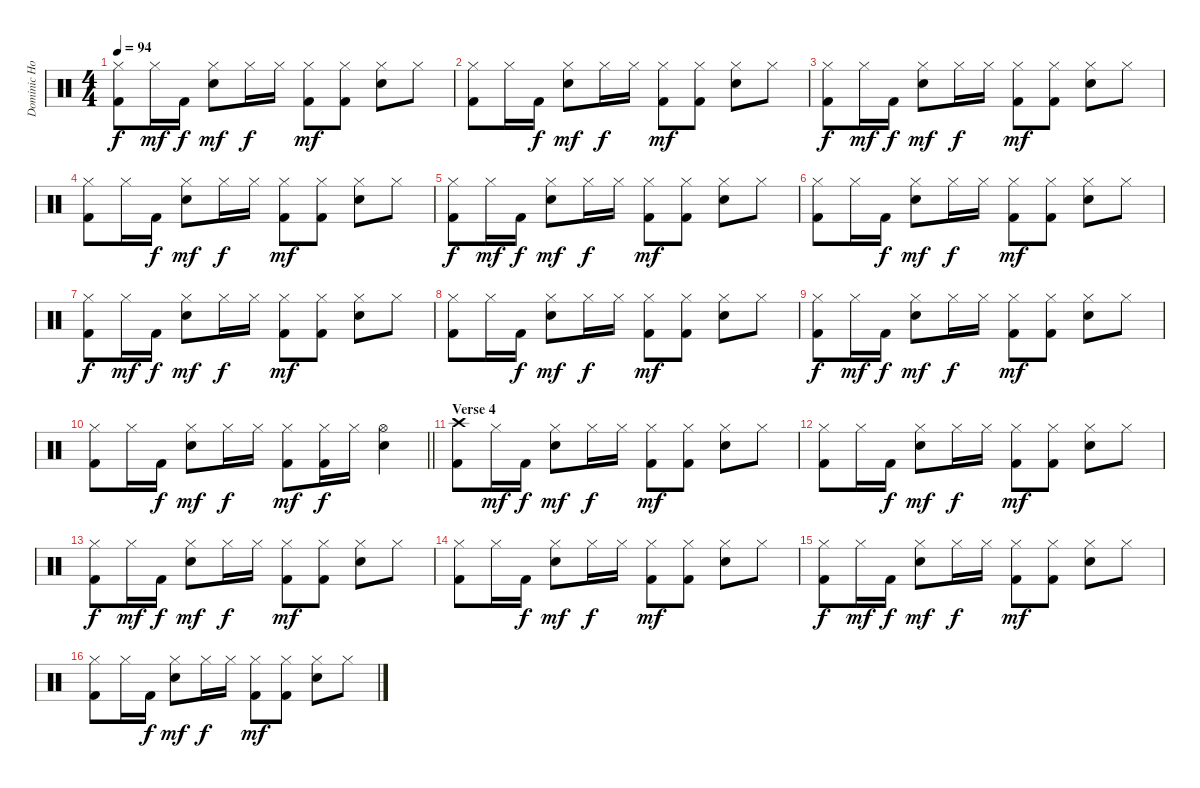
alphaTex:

\track ("Dominic Howard - Drums" "Dominic Ho") {instrument percussion}
\staff {score}
\articulation defaults
\ts (4 4)
\tempo 94
\clef neutral
\ks c
("Kick (hit) 2" "Hi-Hat (closed)").8{dy f} "Hi-Hat (closed)".16{dy mf} "Kick (hit) 2".16{dy f} ("Hi-Hat (closed)" "Electric Snare (hit)").8{dy mf} "Hi-Hat (closed)".16{dy f} "Hi-Hat (closed)".16 ("Hi-Hat (closed)" "Kick (hit) 2").8{dy mf} ("Hi-Hat (closed)" "Kick (hit) 2").8 ("Hi-Hat (closed)" "Electric Snare (hit)").8 "Hi-Hat (closed)".8 |
("Kick (hit) 2" "Hi-Hat (closed)").8 "Hi-Hat (closed)".16 "Kick (hit) 2".16{dy f} ("Hi-Hat (closed)" "Electric Snare (hit)").8{dy mf} "Hi-Hat (closed)".16{dy f} "Hi-Hat (closed)".16 ("Hi-Hat (closed)" "Kick (hit) 2").8{dy mf} ("Hi-Hat (closed)" "Kick (hit) 2").8 ("Hi-Hat (closed)" "Electric Snare (hit)").8 "Hi-Hat (closed)".8 |
("Kick (hit) 2" "Hi-Hat (closed)").8{dy f} "Hi-Hat (closed)".16{dy mf} "Kick (hit) 2".16{dy f} ("Hi-Hat (closed)" "Electric Snare (hit)").8{dy mf} "Hi-Hat (closed)".16{dy f} "Hi-Hat (closed)".16 ("Hi-Hat (closed)" "Kick (hit) 2").8{dy mf} ("Hi-Hat (closed)" "Kick (hit) 2").8 ("Hi-Hat (closed)" "Electric Snare (hit)").8 "Hi-Hat (closed)".8 |
("Kick (hit) 2" "Hi-Hat (closed)").8 "Hi-Hat (closed)".16 "Kick (hit) 2".16{dy f} ("Hi-Hat (closed)" "Electric Snare (hit)").8{dy mf} "Hi-Hat (closed)".16{dy f} "Hi-Hat (closed)".16 ("Hi-Hat (closed)" "Kick (hit) 2").8{dy mf} ("Hi-Hat (closed)" "Kick (hit) 2").8 ("Hi-Hat (closed)" "Electric Snare (hit)").8 "Hi-Hat (closed)".8 |
("Kick (hit) 2" "Hi-Hat (closed)").8{dy f} "Hi-Hat (closed)".16{dy mf} "Kick (hit) 2".16{dy f} ("Hi-Hat (closed)" "Electric Snare (hit)").8{dy mf} "Hi-Hat (closed)".16{dy f} "Hi-Hat (closed)".16 ("Hi-Hat (closed)" "Kick (hit) 2").8{dy mf} ("Hi-Hat (closed)" "Kick (hit) 2").8 ("Hi-Hat (closed)" "Electric Snare (hit)").8 "Hi-Hat (closed)".8 |
("Kick (hit) 2" "Hi-Hat (closed)").8 "Hi-Hat (closed)".16 "Kick (hit) 2".16{dy f} ("Hi-Hat (closed)" "Electric Snare (hit)").8{dy mf} "Hi-Hat (closed)".16{dy f} "Hi-Hat (closed)".16 ("Hi-Hat (closed)" "Kick (hit) 2").8{dy mf} ("Hi-Hat (closed)" "Kick (hit) 2").8 ("Hi-Hat (closed)" "Electric Snare (hit)").8 "Hi-Hat (closed)".8 |
("Kick (hit) 2" "Hi-Hat (closed)").8{dy f} "Hi-Hat (closed)".16{dy mf} "Kick (hit) 2".16{dy f} ("Hi-Hat (closed)" "Electric Snare (hit)").8{dy mf} "Hi-Hat (closed)".16{dy f} "Hi-Hat (closed)".16 ("Hi-Hat (closed)" "Kick (hit) 2").8{dy mf} ("Hi-Hat (closed)" "Kick (hit) 2").8 ("Hi-Hat (closed)" "Electric Snare (hit)").8 "Hi-Hat (closed)".8 |
("Kick (hit) 2" "Hi-Hat (closed)").8 "Hi-Hat (closed)".16 "Kick (hit) 2".16{dy f} ("Hi-Hat (closed)" "Electric Snare (hit)").8{dy mf} "Hi-Hat (closed)".16{dy f} "Hi-Hat (closed)".16 ("Hi-Hat (closed)" "Kick (hit) 2").8{dy mf} ("Hi-Hat (closed)" "Kick (hit) 2").8 ("Hi-Hat (closed)" "Electric Snare (hit)").8 "Hi-Hat (closed)".8 |
("Kick (hit) 2" "Hi-Hat (closed)").8{dy f} "Hi-Hat (closed)".16{dy mf} "Kick (hit) 2".16{dy f} ("Hi-Hat (closed)" "Electric Snare (hit)").8{dy mf} "Hi-Hat (closed)".16{dy f} "Hi-Hat (closed)".16 ("Hi-Hat (closed)" "Kick (hit) 2").8{dy mf} ("Hi-Hat (closed)" "Kick (hit) 2").8 ("Hi-Hat (closed)" "Electric Snare (hit)").8 "Hi-Hat (closed)".8 |
\barLineRight lightlight
("Kick (hit) 2" "Hi-Hat (closed)").8 "Hi-Hat (closed)".16 "Kick (hit) 2".16{dy f} ("Hi-Hat (closed)" "Electric Snare (hit)").8{dy mf} "Hi-Hat (closed)".16{dy f} "Hi-Hat (closed)".16 ("Hi-Hat (closed)" "Kick (hit) 2").8{dy mf} ("Hi-Hat (closed)" "Kick (hit) 2").16{dy f} "Hi-Hat (closed)".16 ("Electric Snare (hit)" "Hi-Hat (open)").4 |
\section ("" "Verse 4")
("Kick (hit) 2" "Crash high (hit)").8 "Hi-Hat (closed)".16{dy mf} "Kick (hit) 2".16{dy f} ("Hi-Hat (closed)" "Electric Snare (hit)").8{dy mf} "Hi-Hat (closed)".16{dy f} "Hi-Hat (closed)".16 ("Hi-Hat (closed)" "Kick (hit) 2").8{dy mf} ("Hi-Hat (closed)" "Kick (hit) 2").8 ("Hi-Hat (closed)" "Electric Snare (hit)").8 "Hi-Hat (closed)".8 |
("Kick (hit) 2" "Hi-Hat (closed)").8 "Hi-Hat (closed)".16 "Kick (hit) 2".16{dy f} ("Hi-Hat (closed)" "Electric Snare (hit)").8{dy mf} "Hi-Hat (closed)".16{dy f} "Hi-Hat (closed)".16 ("Hi-Hat (closed)" "Kick (hit) 2").8{dy mf} ("Hi-Hat (closed)" "Kick (hit) 2").8 ("Hi-Hat (closed)" "Electric Snare (hit)").8 "Hi-Hat (closed)".8 |
("Kick (hit) 2" "Hi-Hat (closed)").8{dy f} "Hi-Hat (closed)".16{dy mf} "Kick (hit) 2".16{dy f} ("Hi-Hat (closed)" "Electric Snare (hit)").8{dy mf} "Hi-Hat (closed)".16{dy f} "Hi-Hat (closed)".16 ("Hi-Hat (closed)" "Kick (hit) 2").8{dy mf} ("Hi-Hat (closed)" "Kick (hit) 2").8 ("Hi-Hat (closed)" "Electric Snare (hit)").8 "Hi-Hat (closed)".8 |
("Kick (hit) 2" "Hi-Hat (closed)").8 "Hi-Hat (closed)".16 "Kick (hit) 2".16{dy f} ("Hi-Hat (closed)" "Electric Snare (hit)").8{dy mf} "Hi-Hat (closed)".16{dy f} "Hi-Hat (closed)".16 ("Hi-Hat (closed)" "Kick (hit) 2").8{dy mf} ("Hi-Hat (closed)" "Kick (hit) 2").8 ("Hi-Hat (closed)" "Electric Snare (hit)").8 "Hi-Hat (closed)".8 |
("Kick (hit) 2" "Hi-Hat (closed)").8{dy f} "Hi-Hat (closed)".16{dy mf} "Kick (hit) 2".16{dy f} ("Hi-Hat (closed)" "Electric Snare (hit)").8{dy mf} "Hi-Hat (closed)".16{dy f} "Hi-Hat (closed)".16 ("Hi-Hat (closed)" "Kick (hit) 2").8{dy mf} ("Hi-Hat (closed)" "Kick (hit) 2").8 ("Hi-Hat (closed)" "Electric Snare (hit)").8 "Hi-Hat (closed)".8 |
("Kick (hit) 2" "Hi-Hat (closed)").8 "Hi-Hat (closed)".16 "Kick (hit) 2".16{dy f} ("Hi-Hat (closed)" "Electric Snare (hit)").8{dy mf} "Hi-Hat (closed)".16{dy f} "Hi-Hat (closed)".16 ("Hi-Hat (closed)" "Kick (hit) 2").8{dy mf} ("Hi-Hat (closed)" "Kick (hit) 2").8 ("Hi-Hat (closed)" "Electric Snare (hit)").8 "Hi-Hat (closed)".8
